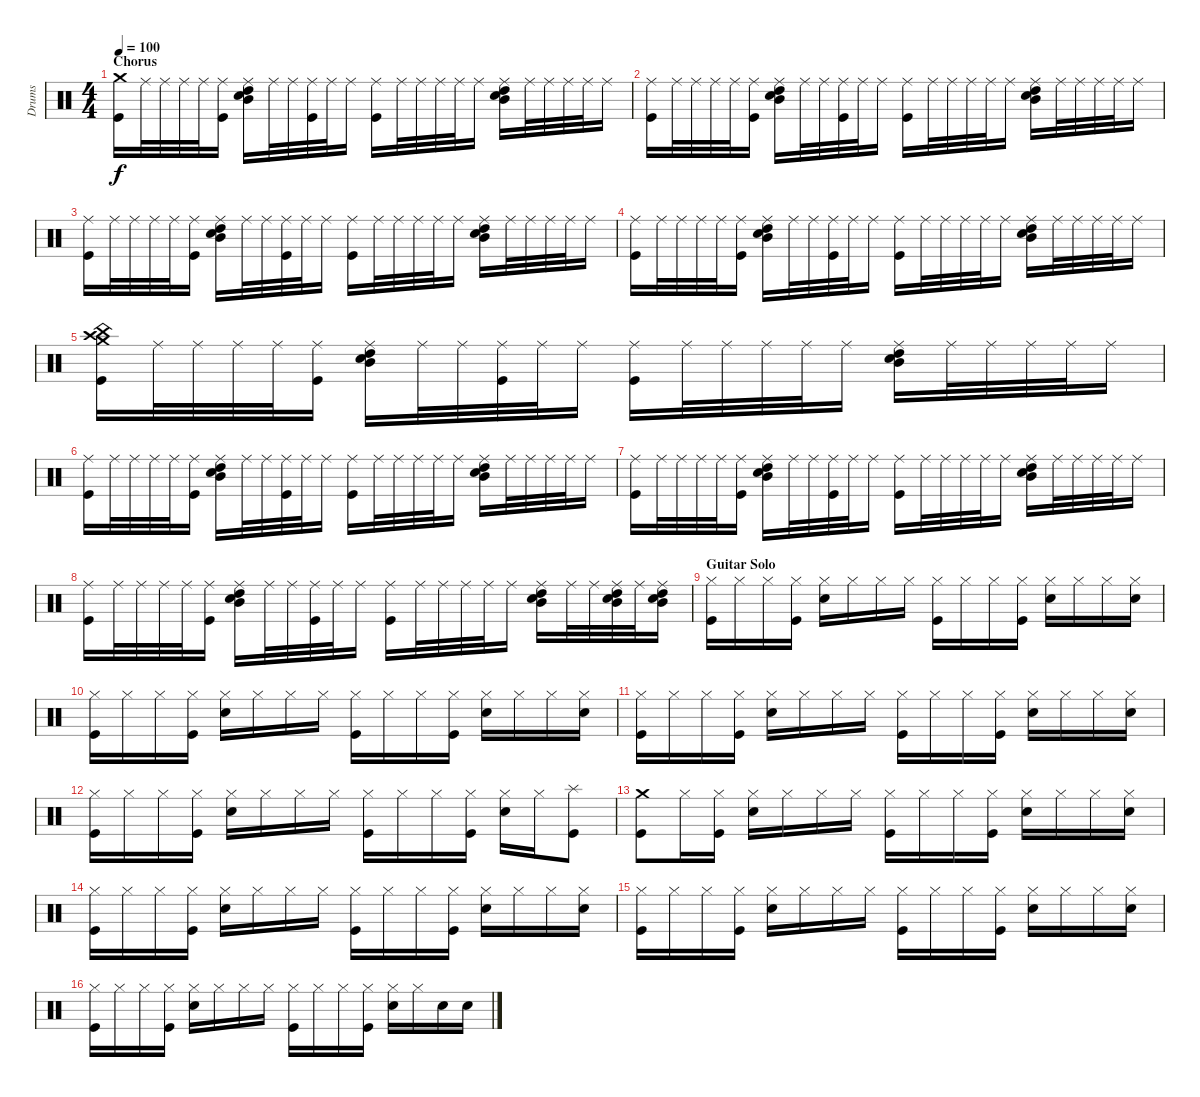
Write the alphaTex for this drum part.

\track ("Drums" "Drums") {instrument percussion}
\staff {score}
\articulation defaults
\ts (4 4)
\section ("" "Chorus")
\tempo 100
\clef neutral
\ks c
("Crash medium (hit)" "Kick (hit)").16{dy f} "Ride (middle)".32 "Ride (middle)".32 "Ride (middle)".32 "Ride (middle)".32 ("Ride (middle)" "Kick (hit)").16 ("Ride (middle)" "Snare (hit) 2" "High Tom (hit)" "Mid Tom (hit)").16 "Ride (middle)".32 "Ride (middle)".32 ("Ride (middle)" "Kick (hit)").32 "Ride (middle)".32 "Ride (middle)".16 ("Ride (middle)" "Kick (hit)").16 "Ride (middle)".32 "Ride (middle)".32 "Ride (middle)".32 "Ride (middle)".32 "Ride (middle)".16 ("Ride (middle)" "Snare (hit) 2" "High Tom (hit)" "Mid Tom (hit)").16 "Ride (middle)".32 "Ride (middle)".32 "Ride (middle)".32 "Ride (middle)".32 "Ride (middle)".16 |
("Ride (middle)" "Kick (hit)").16 "Ride (middle)".32 "Ride (middle)".32 "Ride (middle)".32 "Ride (middle)".32 ("Ride (middle)" "Kick (hit)").16 ("Ride (middle)" "Snare (hit) 2" "High Tom (hit)" "Mid Tom (hit)").16 "Ride (middle)".32 "Ride (middle)".32 ("Ride (middle)" "Kick (hit)").32 "Ride (middle)".32 "Ride (middle)".16 ("Ride (middle)" "Kick (hit)").16 "Ride (middle)".32 "Ride (middle)".32 "Ride (middle)".32 "Ride (middle)".32 "Ride (middle)".16 ("Ride (middle)" "Snare (hit) 2" "High Tom (hit)" "Mid Tom (hit)").16 "Ride (middle)".32 "Ride (middle)".32 "Ride (middle)".32 "Ride (middle)".32 "Ride (middle)".16 |
("Ride (middle)" "Kick (hit)").16 "Ride (middle)".32 "Ride (middle)".32 "Ride (middle)".32 "Ride (middle)".32 ("Ride (middle)" "Kick (hit)").16 ("Ride (middle)" "Snare (hit) 2" "High Tom (hit)" "Mid Tom (hit)").16 "Ride (middle)".32 "Ride (middle)".32 ("Ride (middle)" "Kick (hit)").32 "Ride (middle)".32 "Ride (middle)".16 ("Ride (middle)" "Kick (hit)").16 "Ride (middle)".32 "Ride (middle)".32 "Ride (middle)".32 "Ride (middle)".32 "Ride (middle)".16 ("Ride (middle)" "Snare (hit) 2" "High Tom (hit)" "Mid Tom (hit)").16 "Ride (middle)".32 "Ride (middle)".32 "Ride (middle)".32 "Ride (middle)".32 "Ride (middle)".16 |
("Ride (middle)" "Kick (hit)").16 "Ride (middle)".32 "Ride (middle)".32 "Ride (middle)".32 "Ride (middle)".32 ("Ride (middle)" "Kick (hit)").16 ("Ride (middle)" "Snare (hit) 2" "High Tom (hit)" "Mid Tom (hit)").16 "Ride (middle)".32 "Ride (middle)".32 ("Ride (middle)" "Kick (hit)").32 "Ride (middle)".32 "Ride (middle)".16 ("Ride (middle)" "Kick (hit)").16 "Ride (middle)".32 "Ride (middle)".32 "Ride (middle)".32 "Ride (middle)".32 "Ride (middle)".16 ("Ride (middle)" "Snare (hit) 2" "High Tom (hit)" "Mid Tom (hit)").16 "Ride (middle)".32 "Ride (middle)".32 "Ride (middle)".32 "Ride (middle)".32 "Ride (middle)".16 |
("Crash medium (hit)" "Crash high (hit)" "China (hit)" "Kick (hit)").16 "Ride (middle)".32 "Ride (middle)".32 "Ride (middle)".32 "Ride (middle)".32 ("Ride (middle)" "Kick (hit)").16 ("Ride (middle)" "Snare (hit) 2" "High Tom (hit)" "Mid Tom (hit)").16 "Ride (middle)".32 "Ride (middle)".32 ("Ride (middle)" "Kick (hit)").32 "Ride (middle)".32 "Ride (middle)".16 ("Ride (middle)" "Kick (hit)").16 "Ride (middle)".32 "Ride (middle)".32 "Ride (middle)".32 "Ride (middle)".32 "Ride (middle)".16 ("Ride (middle)" "Snare (hit) 2" "High Tom (hit)" "Mid Tom (hit)").16 "Ride (middle)".32 "Ride (middle)".32 "Ride (middle)".32 "Ride (middle)".32 "Ride (middle)".16 |
("Ride (middle)" "Kick (hit)").16 "Ride (middle)".32 "Ride (middle)".32 "Ride (middle)".32 "Ride (middle)".32 ("Ride (middle)" "Kick (hit)").16 ("Ride (middle)" "Snare (hit) 2" "High Tom (hit)" "Mid Tom (hit)").16 "Ride (middle)".32 "Ride (middle)".32 ("Ride (middle)" "Kick (hit)").32 "Ride (middle)".32 "Ride (middle)".16 ("Ride (middle)" "Kick (hit)").16 "Ride (middle)".32 "Ride (middle)".32 "Ride (middle)".32 "Ride (middle)".32 "Ride (middle)".16 ("Ride (middle)" "Snare (hit) 2" "High Tom (hit)" "Mid Tom (hit)").16 "Ride (middle)".32 "Ride (middle)".32 "Ride (middle)".32 "Ride (middle)".32 "Ride (middle)".16 |
("Ride (middle)" "Kick (hit)").16 "Ride (middle)".32 "Ride (middle)".32 "Ride (middle)".32 "Ride (middle)".32 ("Ride (middle)" "Kick (hit)").16 ("Ride (middle)" "Snare (hit) 2" "High Tom (hit)" "Mid Tom (hit)").16 "Ride (middle)".32 "Ride (middle)".32 ("Ride (middle)" "Kick (hit)").32 "Ride (middle)".32 "Ride (middle)".16 ("Ride (middle)" "Kick (hit)").16 "Ride (middle)".32 "Ride (middle)".32 "Ride (middle)".32 "Ride (middle)".32 "Ride (middle)".16 ("Ride (middle)" "Snare (hit) 2" "High Tom (hit)" "Mid Tom (hit)").16 "Ride (middle)".32 "Ride (middle)".32 "Ride (middle)".32 "Ride (middle)".32 "Ride (middle)".16 |
("Ride (middle)" "Kick (hit)").16 "Ride (middle)".32 "Ride (middle)".32 "Ride (middle)".32 "Ride (middle)".32 ("Ride (middle)" "Kick (hit)").16 ("Ride (middle)" "Snare (hit) 2" "High Tom (hit)" "Mid Tom (hit)").16 "Ride (middle)".32 "Ride (middle)".32 ("Ride (middle)" "Kick (hit)").32 "Ride (middle)".32 "Ride (middle)".16 ("Ride (middle)" "Kick (hit)").16 "Ride (middle)".32 "Ride (middle)".32 "Ride (middle)".32 "Ride (middle)".32 "Ride (middle)".16 ("Ride (middle)" "Snare (hit) 2" "High Tom (hit)" "Mid Tom (hit)").16 "Ride (middle)".32 "Ride (middle)".32 ("Ride (middle)" "Snare (hit) 2" "High Tom (hit)" "Mid Tom (hit)").32 "Ride (middle)".32 ("Ride (middle)" "Snare (hit) 2" "High Tom (hit)" "Mid Tom (hit)").16 |
\section ("" "Guitar Solo")
("Hi-Hat (closed)" "Kick (hit)").16 "Hi-Hat (closed)".16 "Hi-Hat (closed)".16 ("Hi-Hat (closed)" "Kick (hit)").16 ("Hi-Hat (closed)" "Electric Snare (hit)").16 "Hi-Hat (closed)".16 "Hi-Hat (closed)".16 "Hi-Hat (closed)".16 ("Hi-Hat (closed)" "Kick (hit)").16 "Hi-Hat (closed)".16 "Hi-Hat (closed)".16 ("Hi-Hat (closed)" "Kick (hit)").16 ("Hi-Hat (closed)" "Electric Snare (hit)").16 "Hi-Hat (closed)".16 "Hi-Hat (closed)".16 ("Hi-Hat (closed)" "Electric Snare (hit)").16 |
("Hi-Hat (closed)" "Kick (hit)").16 "Hi-Hat (closed)".16 "Hi-Hat (closed)".16 ("Hi-Hat (closed)" "Kick (hit)").16 ("Hi-Hat (closed)" "Electric Snare (hit)").16 "Hi-Hat (closed)".16 "Hi-Hat (closed)".16 "Hi-Hat (closed)".16 ("Hi-Hat (closed)" "Kick (hit)").16 "Hi-Hat (closed)".16 "Hi-Hat (closed)".16 ("Hi-Hat (closed)" "Kick (hit)").16 ("Hi-Hat (closed)" "Electric Snare (hit)").16 "Hi-Hat (closed)".16 "Hi-Hat (closed)".16 ("Hi-Hat (closed)" "Electric Snare (hit)").16 |
("Hi-Hat (closed)" "Kick (hit)").16 "Hi-Hat (closed)".16 "Hi-Hat (closed)".16 ("Hi-Hat (closed)" "Kick (hit)").16 ("Hi-Hat (closed)" "Electric Snare (hit)").16 "Hi-Hat (closed)".16 "Hi-Hat (closed)".16 "Hi-Hat (closed)".16 ("Hi-Hat (closed)" "Kick (hit)").16 "Hi-Hat (closed)".16 "Hi-Hat (closed)".16 ("Hi-Hat (closed)" "Kick (hit)").16 ("Hi-Hat (closed)" "Electric Snare (hit)").16 "Hi-Hat (closed)".16 "Hi-Hat (closed)".16 ("Hi-Hat (closed)" "Electric Snare (hit)").16 |
("Hi-Hat (closed)" "Kick (hit)").16 "Hi-Hat (closed)".16 "Hi-Hat (closed)".16 ("Hi-Hat (closed)" "Kick (hit)").16 ("Hi-Hat (closed)" "Electric Snare (hit)").16 "Hi-Hat (closed)".16 "Hi-Hat (closed)".16 "Hi-Hat (closed)".16 ("Hi-Hat (closed)" "Kick (hit)").16 "Hi-Hat (closed)".16 "Hi-Hat (closed)".16 ("Hi-Hat (closed)" "Kick (hit)").16 ("Hi-Hat (closed)" "Electric Snare (hit)").16 "Hi-Hat (closed)".16 ("Splash (hit)" "Kick (hit)").8 |
("Crash medium (hit)" "Kick (hit)").8 "Hi-Hat (closed)".16 ("Hi-Hat (closed)" "Kick (hit)").16 ("Hi-Hat (closed)" "Electric Snare (hit)").16 "Hi-Hat (closed)".16 "Hi-Hat (closed)".16 "Hi-Hat (closed)".16 ("Hi-Hat (closed)" "Kick (hit)").16 "Hi-Hat (closed)".16 "Hi-Hat (closed)".16 ("Hi-Hat (closed)" "Kick (hit)").16 ("Hi-Hat (closed)" "Electric Snare (hit)").16 "Hi-Hat (closed)".16 "Hi-Hat (closed)".16 ("Hi-Hat (closed)" "Electric Snare (hit)").16 |
("Hi-Hat (closed)" "Kick (hit)").16 "Hi-Hat (closed)".16 "Hi-Hat (closed)".16 ("Hi-Hat (closed)" "Kick (hit)").16 ("Hi-Hat (closed)" "Electric Snare (hit)").16 "Hi-Hat (closed)".16 "Hi-Hat (closed)".16 "Hi-Hat (closed)".16 ("Hi-Hat (closed)" "Kick (hit)").16 "Hi-Hat (closed)".16 "Hi-Hat (closed)".16 ("Hi-Hat (closed)" "Kick (hit)").16 ("Hi-Hat (closed)" "Electric Snare (hit)").16 "Hi-Hat (closed)".16 "Hi-Hat (closed)".16 ("Hi-Hat (closed)" "Electric Snare (hit)").16 |
("Hi-Hat (closed)" "Kick (hit)").16 "Hi-Hat (closed)".16 "Hi-Hat (closed)".16 ("Hi-Hat (closed)" "Kick (hit)").16 ("Hi-Hat (closed)" "Electric Snare (hit)").16 "Hi-Hat (closed)".16 "Hi-Hat (closed)".16 "Hi-Hat (closed)".16 ("Hi-Hat (closed)" "Kick (hit)").16 "Hi-Hat (closed)".16 "Hi-Hat (closed)".16 ("Hi-Hat (closed)" "Kick (hit)").16 ("Hi-Hat (closed)" "Electric Snare (hit)").16 "Hi-Hat (closed)".16 "Hi-Hat (closed)".16 ("Hi-Hat (closed)" "Electric Snare (hit)").16 |
("Hi-Hat (closed)" "Kick (hit)").16 "Hi-Hat (closed)".16 "Hi-Hat (closed)".16 ("Hi-Hat (closed)" "Kick (hit)").16 ("Hi-Hat (closed)" "Electric Snare (hit)").16 "Hi-Hat (closed)".16 "Hi-Hat (closed)".16 "Hi-Hat (closed)".16 ("Hi-Hat (closed)" "Kick (hit)").16 "Hi-Hat (closed)".16 "Hi-Hat (closed)".16 ("Hi-Hat (closed)" "Kick (hit)").16 ("Hi-Hat (closed)" "Electric Snare (hit)").16 "Hi-Hat (closed)".16 "Electric Snare (hit)".16 "Electric Snare (hit)".16
